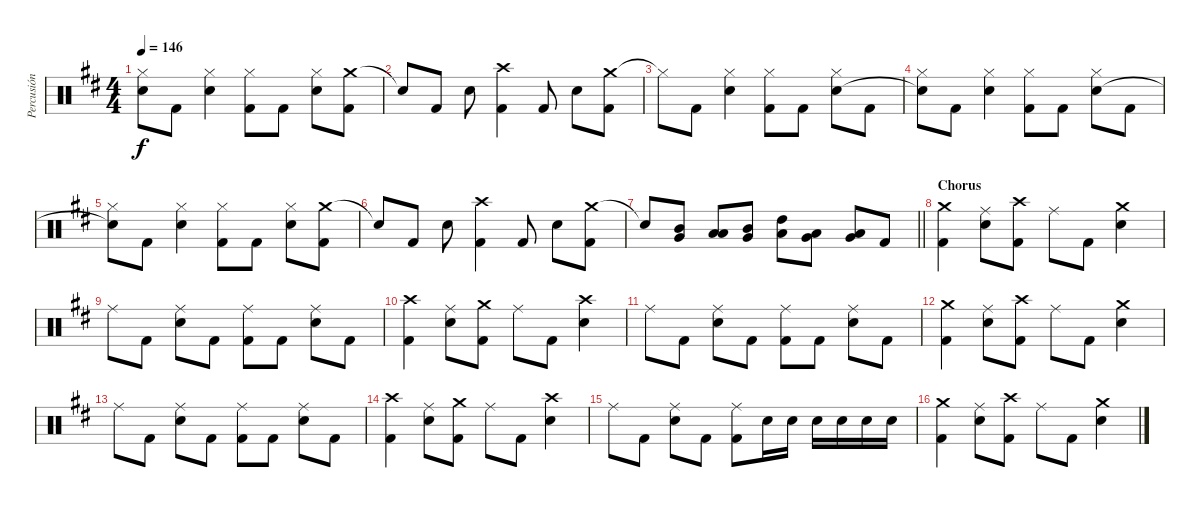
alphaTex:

\track ("Percusión" "Percusión") {instrument percussion}
\staff {score}
\articulation defaults
\ts (4 4)
\tempo 146
\clef neutral
\ks d
("Hi-Hat (closed)" "Snare (hit)"{t}).8{dy f} "Kick (hit) 2".8 ("Hi-Hat (closed)" "Snare (hit) 2").4 ("Hi-Hat (closed)" "Kick (hit) 2").8 "Kick (hit) 2".8 ("Hi-Hat (closed)" "Snare (hit) 2").8 ("Crash medium (hit)" "Kick (hit) 2").8 |
"Snare (hit)"{t}.8 "Kick (hit) 2".8 "Snare (hit) 2".8 ("Crash high (hit)" "Kick (hit) 2").4 "Kick (hit) 2".8 "Snare (hit) 2".8 ("Crash medium (hit)" "Kick (hit) 2").8 |
"Hi-Hat (closed)"{t}.8 "Kick (hit) 2".8 ("Hi-Hat (closed)" "Snare (hit) 2").4 ("Hi-Hat (closed)" "Kick (hit) 2").8 "Kick (hit) 2".8 ("Hi-Hat (closed)" "Snare (hit) 2").8 "Kick (hit) 2".8 |
("Hi-Hat (closed)" "Snare (hit)"{t}).8 "Kick (hit) 2".8 ("Hi-Hat (closed)" "Snare (hit) 2").4 ("Hi-Hat (closed)" "Kick (hit) 2").8 "Kick (hit) 2".8 ("Hi-Hat (closed)" "Snare (hit) 2").8 "Kick (hit) 2".8 |
("Hi-Hat (closed)" "Snare (hit)"{t}).8 "Kick (hit) 2".8 ("Hi-Hat (closed)" "Snare (hit) 2").4 ("Hi-Hat (closed)" "Kick (hit) 2").8 "Kick (hit) 2".8 ("Hi-Hat (closed)" "Snare (hit) 2").8 ("Crash medium (hit)" "Kick (hit) 2").8 |
"Snare (hit)"{t}.8 "Kick (hit) 2".8 "Snare (hit) 2".8 ("Crash high (hit)" "Kick (hit) 2").4 "Kick (hit) 2".8 "Snare (hit) 2".8 ("Crash medium (hit)" "Kick (hit) 2").8 |
\barLineRight lightlight "Snare (hit)"{t}.8
("Mid Tom (hit)" "Very Low Tom (hit)").8 ("Low Floor Tom (hit)" "Low Tom (hit)").8 ("Very Low Tom (hit)" "Mid Tom (hit)").8 ("Low Tom (hit)" "High Tom (hit)").8 ("Very Low Tom (hit)" "Low Floor Tom (hit)").8 ("Low Tom (hit)" "Very Low Tom (hit)").8 "Kick (hit) 2".8 |
\section ("" "Chorus")
("Crash medium (hit)" "Kick (hit) 2").4 ("Ride (middle)" "Snare (hit) 2").8 ("Crash high (hit)" "Kick (hit) 2").8 "Ride (middle)".8 "Kick (hit) 2".8 ("Crash medium (hit)" "Snare (hit) 2").4 |
"Ride (middle)".8 "Kick (hit) 2".8 ("Ride (middle)" "Snare (hit) 2").8 "Kick (hit) 2".8 ("Ride (middle)" "Kick (hit) 2").8 "Kick (hit) 2".8 ("Ride (middle)" "Snare (hit) 2").8 "Kick (hit) 2".8 |
("Crash high (hit)" "Kick (hit) 2").4 ("Ride (middle)" "Snare (hit) 2").8 ("Crash medium (hit)" "Kick (hit) 2").8 "Ride (middle)".8 "Kick (hit) 2".8 ("Crash high (hit)" "Snare (hit) 2").4 |
"Ride (middle)".8 "Kick (hit) 2".8 ("Ride (middle)" "Snare (hit) 2").8 "Kick (hit) 2".8 ("Ride (middle)" "Kick (hit) 2").8 "Kick (hit) 2".8 ("Ride (middle)" "Snare (hit) 2").8 "Kick (hit) 2".8 |
("Crash medium (hit)" "Kick (hit) 2").4 ("Ride (middle)" "Snare (hit) 2").8 ("Crash high (hit)" "Kick (hit) 2").8 "Ride (middle)".8 "Kick (hit) 2".8 ("Crash medium (hit)" "Snare (hit) 2").4 |
"Ride (middle)".8 "Kick (hit) 2".8 ("Ride (middle)" "Snare (hit) 2").8 "Kick (hit) 2".8 ("Ride (middle)" "Kick (hit) 2").8 "Kick (hit) 2".8 ("Ride (middle)" "Snare (hit) 2").8 "Kick (hit) 2".8 |
("Crash high (hit)" "Kick (hit) 2").4 ("Ride (middle)" "Snare (hit) 2").8 ("Crash medium (hit)" "Kick (hit) 2").8 "Ride (middle)".8 "Kick (hit) 2".8 ("Crash high (hit)" "Snare (hit) 2").4 |
"Ride (middle)".8 "Kick (hit) 2".8 ("Ride (middle)" "Snare (hit) 2").8 "Kick (hit) 2".8 ("Ride (middle)" "Kick (hit) 2").8 "Snare (hit) 2".16 "Snare (hit) 2".16 "Snare (hit) 2".16 "Snare (hit) 2".16 "Snare (hit) 2".16 "Snare (hit) 2".16 |
("Crash medium (hit)" "Kick (hit) 2").4 ("Ride (middle)" "Snare (hit) 2").8 ("Crash high (hit)" "Kick (hit) 2").8 "Ride (middle)".8 "Kick (hit) 2".8 ("Crash medium (hit)" "Snare (hit) 2").4
